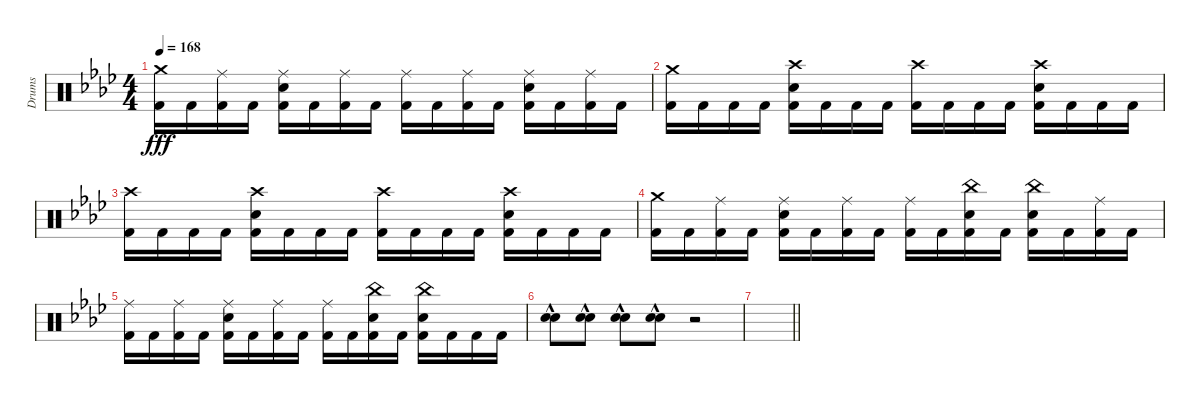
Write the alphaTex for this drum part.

\track ("Drums" "Drums") {instrument percussion}
\staff {score}
\articulation defaults
\ts (4 4)
\tempo 168
\clef neutral
\ks fminor
("Crash medium (hit)" "Kick (hit) 2").16{dy fff} "Kick (hit) 2".16 ("Ride (middle)" "Kick (hit) 2").16 "Kick (hit) 2".16 ("Ride (middle)" "Snare (hit) 2" "Kick (hit) 2").16 "Kick (hit) 2".16 ("Ride (middle)" "Kick (hit) 2").16 "Kick (hit) 2".16 ("Ride (middle)" "Kick (hit) 2").16 "Kick (hit) 2".16 ("Ride (middle)" "Kick (hit) 2").16 "Kick (hit) 2".16 ("Ride (middle)" "Snare (hit) 2" "Kick (hit) 2").16 "Kick (hit) 2".16 ("Ride (middle)" "Kick (hit) 2").16 "Kick (hit) 2".16 |
("Crash medium (hit)" "Kick (hit) 2").16 "Kick (hit) 2".16 "Kick (hit) 2".16 "Kick (hit) 2".16 ("Snare (hit) 2" "Crash high (hit)" "Kick (hit) 2").16 "Kick (hit) 2".16 "Kick (hit) 2".16 "Kick (hit) 2".16 ("Crash high (hit)" "Kick (hit) 2").16 "Kick (hit) 2".16 "Kick (hit) 2".16 "Kick (hit) 2".16 ("Crash high (hit)" "Snare (hit) 2" "Kick (hit) 2").16 "Kick (hit) 2".16 "Kick (hit) 2".16 "Kick (hit) 2".16 |
("Crash high (hit)" "Kick (hit) 2").16 "Kick (hit) 2".16 "Kick (hit) 2".16 "Kick (hit) 2".16 ("Crash high (hit)" "Snare (hit) 2" "Kick (hit) 2").16 "Kick (hit) 2".16 "Kick (hit) 2".16 "Kick (hit) 2".16 ("Crash high (hit)" "Kick (hit) 2").16 "Kick (hit) 2".16 "Kick (hit) 2".16 "Kick (hit) 2".16 ("Snare (hit) 2" "Crash high (hit)" "Kick (hit) 2").16 "Kick (hit) 2".16 "Kick (hit) 2".16 "Kick (hit) 2".16 |
("Crash medium (hit)" "Kick (hit) 2").16 "Kick (hit) 2".16 ("Ride (middle)" "Kick (hit) 2").16 "Kick (hit) 2".16 ("Snare (hit) 2" "Ride (middle)" "Kick (hit) 2").16 "Kick (hit) 2".16 ("Ride (middle)" "Kick (hit) 2").16 "Kick (hit) 2".16 ("Ride (middle)" "Kick (hit) 2").16 "Kick (hit) 2".16 ("Snare (hit) 2" "China (hit)" "Kick (hit) 2").16 "Kick (hit) 2".16 ("Snare (hit) 2" "China (hit)" "Kick (hit) 2").16 "Kick (hit) 2".16 ("Ride (middle)" "Kick (hit) 2").16 "Kick (hit) 2".16 |
("Ride (middle)" "Kick (hit) 2").16 "Kick (hit) 2".16 ("Ride (middle)" "Kick (hit) 2").16 "Kick (hit) 2".16 ("Ride (middle)" "Snare (hit) 2" "Kick (hit) 2").16 "Kick (hit) 2".16 ("Ride (middle)" "Kick (hit) 2").16 "Kick (hit) 2".16 ("Ride (middle)" "Kick (hit) 2").16 "Kick (hit) 2".16 ("China (hit)" "Snare (hit) 2" "Kick (hit) 2").16 "Kick (hit) 2".16 ("Snare (hit) 2" "China (hit)" "Kick (hit) 2").16 "Kick (hit) 2".16 "Kick (hit) 2".16 "Kick (hit) 2".16 |
("Snare (hit) 2"{hac} "Snare (hit) 2"{hac}).8 ("Snare (hit) 2"{hac} "Snare (hit) 2"{hac}).8 ("Snare (hit) 2"{hac} "Snare (hit) 2"{hac}).8 ("Snare (hit) 2"{hac} "Snare (hit) 2"{hac}).8 r.2 |
\barLineRight lightlight
